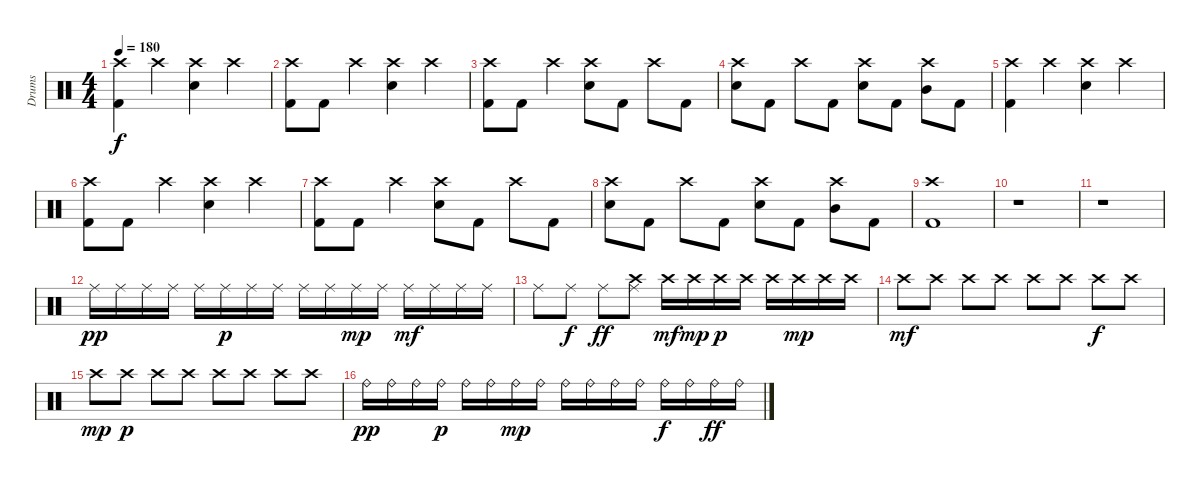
\track ("Drums" "Drums") {instrument percussion}
\staff {score}
\articulation defaults
\ts (4 4)
\tempo 180
\clef neutral
\ks c
("Crash high (hit)" "Kick (hit) 2").4{dy f} "Crash high (hit)".4 ("Crash high (hit)" "Electric Snare (hit)").4 "Crash high (hit)".4 |
("Crash high (hit)" "Kick (hit) 2").8 "Kick (hit) 2".8 "Crash high (hit)".4 ("Crash high (hit)" "Electric Snare (hit)").4 "Crash high (hit)".4 |
("Crash high (hit)" "Kick (hit) 2").8 "Kick (hit) 2".8 "Crash high (hit)".4 ("Crash high (hit)" "Electric Snare (hit)").8 "Kick (hit) 2".8 "Crash high (hit)".8 "Kick (hit) 2".8 |
("Crash high (hit)" "Electric Snare (hit)").8 "Kick (hit) 2".8 "Crash high (hit)".8 "Kick (hit) 2".8 ("Crash high (hit)" "Electric Snare (hit)").8 "Kick (hit) 2".8 ("Crash high (hit)" "Mid Tom (hit)").8 "Kick (hit) 2".8 |
("Crash high (hit)" "Kick (hit) 2").4 "Crash high (hit)".4 ("Crash high (hit)" "Electric Snare (hit)").4 "Crash high (hit)".4 |
("Crash high (hit)" "Kick (hit) 2").8 "Kick (hit) 2".8 "Crash high (hit)".4 ("Crash high (hit)" "Electric Snare (hit)").4 "Crash high (hit)".4 |
("Crash high (hit)" "Kick (hit) 2").8 "Kick (hit) 2".8 "Crash high (hit)".4 ("Crash high (hit)" "Electric Snare (hit)").8 "Kick (hit) 2".8 "Crash high (hit)".8 "Kick (hit) 2".8 |
("Crash high (hit)" "Electric Snare (hit)").8 "Kick (hit) 2".8 "Crash high (hit)".8 "Kick (hit) 2".8 ("Crash high (hit)" "Electric Snare (hit)").8 "Kick (hit) 2".8 ("Crash high (hit)" "Mid Tom (hit)").8 "Kick (hit) 2".8 |
("Crash high (hit)" "Kick (hit) 2").1 |
r.1 |
r.1 |
"Ride (middle)".16{dy pp} "Ride (middle)".16 "Ride (middle)".16 "Ride (middle)".16 "Ride (middle)".16 "Ride (middle)".16{dy p} "Ride (middle)".16 "Ride (middle)".16 "Ride (middle)".16 "Ride (middle)".16 "Ride (middle)".16{dy mp} "Ride (middle)".16 "Ride (middle)".16{dy mf} "Ride (middle)".16 "Ride (middle)".16 "Ride (middle)".16 |
"Ride (middle)".8 "Ride (middle)".8{dy f} "Ride (middle)".8{dy ff} ("Crash high (hit)" "Ride (middle)").8 "Crash high (hit)".16{dy mf} "Crash high (hit)".16{dy mp} "Crash high (hit)".16{dy p} "Crash high (hit)".16 "Crash high (hit)".16 "Crash high (hit)".16{dy mp} "Crash high (hit)".16 "Crash high (hit)".16 |
"Crash high (hit)".8{dy mf} "Crash high (hit)".8 "Crash high (hit)".8 "Crash high (hit)".8 "Crash high (hit)".8 "Crash high (hit)".8 "Crash high (hit)".8{dy f} "Crash high (hit)".8 |
"Crash high (hit)".8{dy mp} "Crash high (hit)".8{dy p} "Crash high (hit)".8 "Crash high (hit)".8 "Crash high (hit)".8 "Crash high (hit)".8 "Crash high (hit)".8 "Crash high (hit)".8 |
"Ride (bell)".16{dy pp} "Ride (bell)".16 "Ride (bell)".16 "Ride (bell)".16{dy p} "Ride (bell)".16 "Ride (bell)".16 "Ride (bell)".16{dy mp} "Ride (bell)".16 "Ride (bell)".16 "Ride (bell)".16 "Ride (bell)".16 "Ride (bell)".16 "Ride (bell)".16{dy f} "Ride (bell)".16 "Ride (bell)".16{dy ff} "Ride (bell)".16
